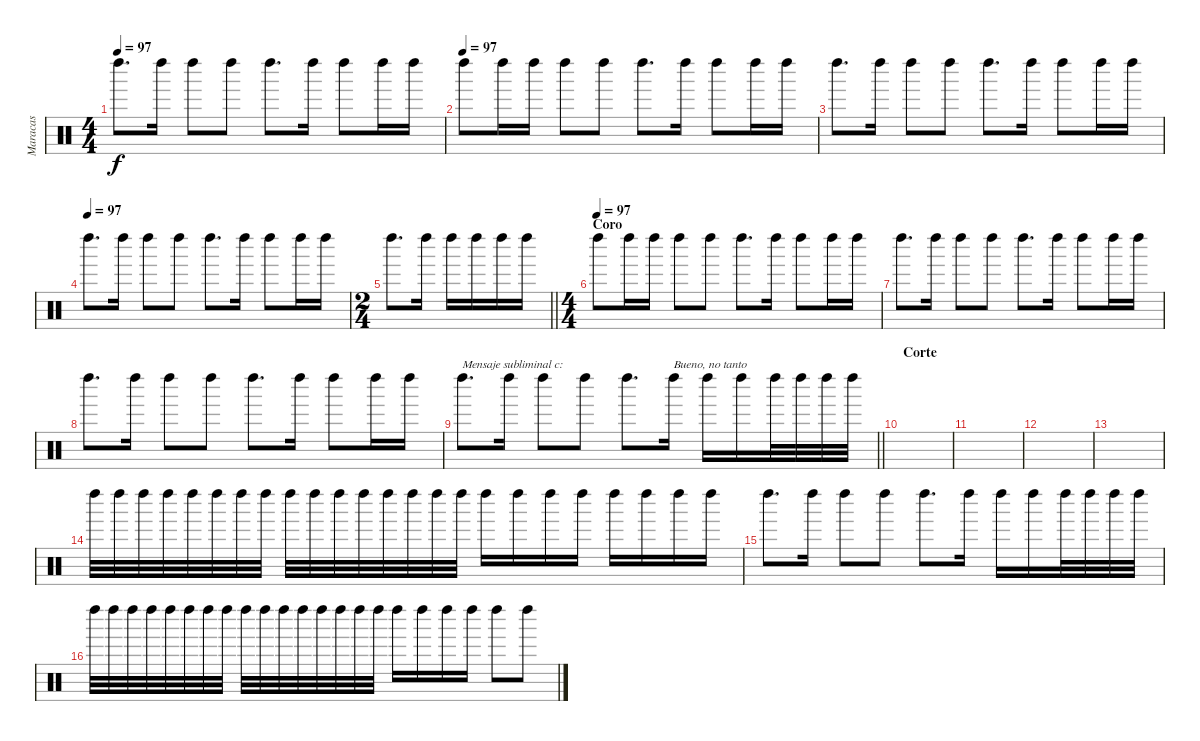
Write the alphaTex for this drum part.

\track ("Maracas" "Maracas") {instrument percussion}
\staff {score}
\articulation defaults
\ts (4 4)
\tempo 97
\clef neutral
\ks c "Left Maraca (hit)".8{d dy f} "Left Maraca (hit)".16 "Left Maraca (hit)".8 "Left Maraca (hit)".8 "Left Maraca (hit)".8{d} "Left Maraca (hit)".16 "Left Maraca (hit)".8 "Left Maraca (hit)".16 "Left Maraca (hit)".16
|
\tempo (97)
"Left Maraca (hit)".8 "Left Maraca (hit)".16 "Left Maraca (hit)".16 "Left Maraca (hit)".8 "Left Maraca (hit)".8 "Left Maraca (hit)".8{d} "Left Maraca (hit)".16 "Left Maraca (hit)".8 "Left Maraca (hit)".16 "Left Maraca (hit)".16 |
"Left Maraca (hit)".8{d} "Left Maraca (hit)".16 "Left Maraca (hit)".8 "Left Maraca (hit)".8 "Left Maraca (hit)".8{d} "Left Maraca (hit)".16 "Left Maraca (hit)".8 "Left Maraca (hit)".16 "Left Maraca (hit)".16 |
\tempo (97)
"Left Maraca (hit)".8{d} "Left Maraca (hit)".16 "Left Maraca (hit)".8 "Left Maraca (hit)".8 "Left Maraca (hit)".8{d} "Left Maraca (hit)".16 "Left Maraca (hit)".8 "Left Maraca (hit)".16 "Left Maraca (hit)".16 |
\ts (2 4)
\barLineRight lightlight "Left Maraca (hit)".8{d} "Left Maraca (hit)".16 "Left Maraca (hit)".16 "Left Maraca (hit)".16 "Left Maraca (hit)".16 "Left Maraca (hit)".16
|
\ts (4 4)
\section ("" "Coro")
\tempo (97)
"Left Maraca (hit)".8 "Left Maraca (hit)".16 "Left Maraca (hit)".16 "Left Maraca (hit)".8 "Left Maraca (hit)".8 "Left Maraca (hit)".8{d} "Left Maraca (hit)".16 "Left Maraca (hit)".8 "Left Maraca (hit)".16 "Left Maraca (hit)".16 |
"Left Maraca (hit)".8{d} "Left Maraca (hit)".16 "Left Maraca (hit)".8 "Left Maraca (hit)".8 "Left Maraca (hit)".8{d} "Left Maraca (hit)".16 "Left Maraca (hit)".8 "Left Maraca (hit)".16 "Left Maraca (hit)".16 |
"Left Maraca (hit)".8{d} "Left Maraca (hit)".16 "Left Maraca (hit)".8 "Left Maraca (hit)".8 "Left Maraca (hit)".8{d} "Left Maraca (hit)".16 "Left Maraca (hit)".8 "Left Maraca (hit)".16 "Left Maraca (hit)".16 |
\barLineRight lightlight "Left Maraca (hit)".8{d txt "Mensaje subliminal c:"} "Left Maraca (hit)".16 "Left Maraca (hit)".8 "Left Maraca (hit)".8 "Left Maraca (hit)".8{d} "Left Maraca (hit)".16{txt "Bueno, no tanto"} "Left Maraca (hit)".16 "Left Maraca (hit)".16 "Left Maraca (hit)".32 "Left Maraca (hit)".32 "Left Maraca (hit)".32 "Left Maraca (hit)".32
|
\section ("" "Corte")
|
|
|
|
"Left Maraca (hit)".32 "Left Maraca (hit)".32 "Left Maraca (hit)".32 "Left Maraca (hit)".32 "Left Maraca (hit)".32 "Left Maraca (hit)".32 "Left Maraca (hit)".32 "Left Maraca (hit)".32 "Left Maraca (hit)".32 "Left Maraca (hit)".32 "Left Maraca (hit)".32 "Left Maraca (hit)".32 "Left Maraca (hit)".32 "Left Maraca (hit)".32 "Left Maraca (hit)".32 "Left Maraca (hit)".32 "Left Maraca (hit)".16 "Left Maraca (hit)".16 "Left Maraca (hit)".16 "Left Maraca (hit)".16 "Left Maraca (hit)".16 "Left Maraca (hit)".16 "Left Maraca (hit)".16 "Left Maraca (hit)".16 |
"Left Maraca (hit)".8{d} "Left Maraca (hit)".16 "Left Maraca (hit)".8 "Left Maraca (hit)".8 "Left Maraca (hit)".8{d} "Left Maraca (hit)".16 "Left Maraca (hit)".16 "Left Maraca (hit)".16 "Left Maraca (hit)".32 "Left Maraca (hit)".32 "Left Maraca (hit)".32 "Left Maraca (hit)".32 |
"Left Maraca (hit)".32 "Left Maraca (hit)".32 "Left Maraca (hit)".32 "Left Maraca (hit)".32 "Left Maraca (hit)".32 "Left Maraca (hit)".32 "Left Maraca (hit)".32 "Left Maraca (hit)".32 "Left Maraca (hit)".32 "Left Maraca (hit)".32 "Left Maraca (hit)".32 "Left Maraca (hit)".32 "Left Maraca (hit)".32 "Left Maraca (hit)".32 "Left Maraca (hit)".32 "Left Maraca (hit)".32 "Left Maraca (hit)".16 "Left Maraca (hit)".16 "Left Maraca (hit)".16 "Left Maraca (hit)".16 "Left Maraca (hit)".8 "Left Maraca (hit)".8
